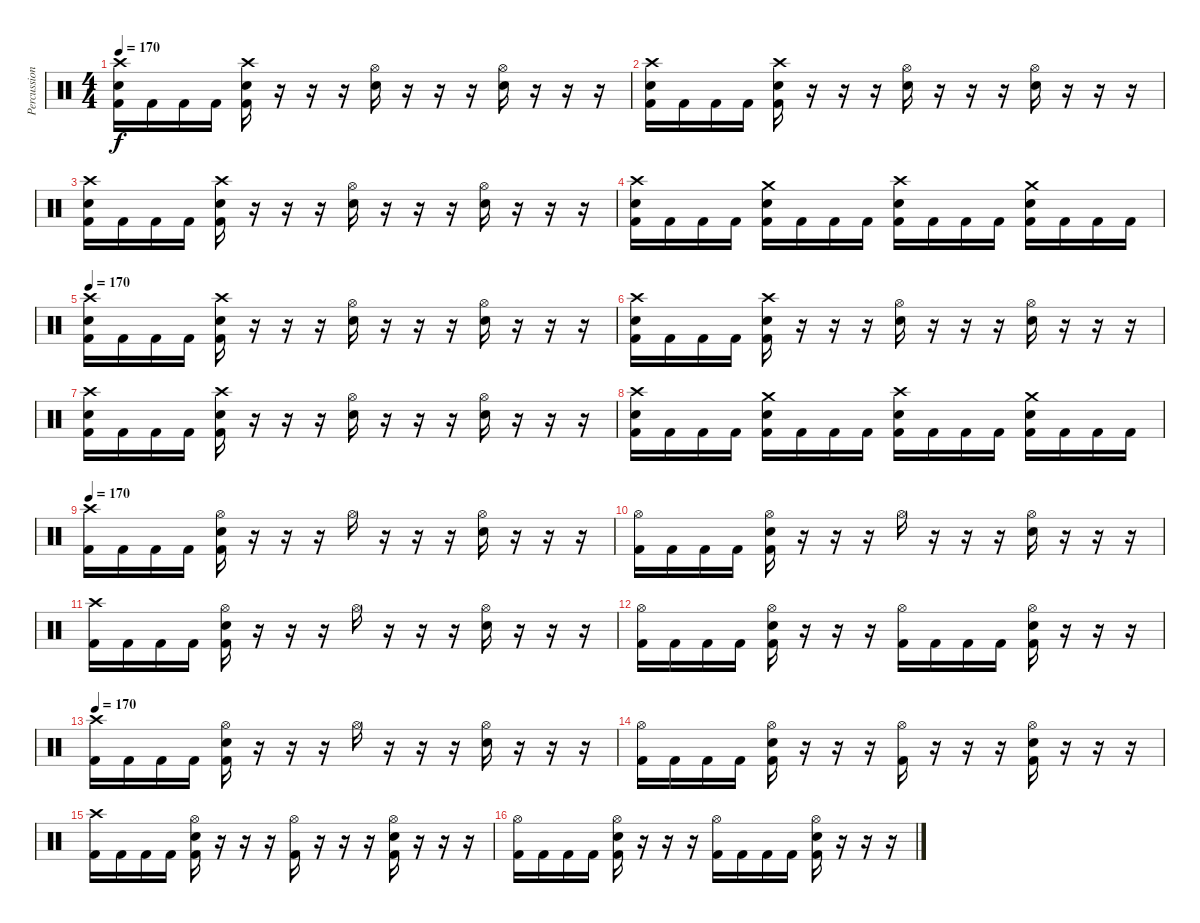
\track ("Percussion" "Percussion") {instrument percussion}
\staff {score}
\articulation defaults
\ts (4 4)
\tempo 170
\clef neutral
\ks c
("Crash high (hit)" "Snare (hit) 2" "Kick (hit) 2").16{dy f} "Kick (hit) 2".16 "Kick (hit) 2".16 "Kick (hit) 2".16 ("Crash high (hit)" "Snare (hit) 2" "Kick (hit) 2").16 r.16 r.16 r.16 ("Hi-Hat (open)" "Snare (hit) 2").16 r.16 r.16 r.16 ("Hi-Hat (open)" "Snare (hit) 2").16 r.16 r.16 r.16 |
("Crash high (hit)" "Snare (hit) 2" "Kick (hit) 2").16 "Kick (hit) 2".16 "Kick (hit) 2".16 "Kick (hit) 2".16 ("Crash high (hit)" "Snare (hit) 2" "Kick (hit) 2").16 r.16 r.16 r.16 ("Hi-Hat (open)" "Snare (hit) 2").16 r.16 r.16 r.16 ("Hi-Hat (open)" "Snare (hit) 2").16 r.16 r.16 r.16 |
("Crash high (hit)" "Snare (hit) 2" "Kick (hit) 2").16 "Kick (hit) 2".16 "Kick (hit) 2".16 "Kick (hit) 2".16 ("Crash high (hit)" "Snare (hit) 2" "Kick (hit) 2").16 r.16 r.16 r.16 ("Hi-Hat (open)" "Snare (hit) 2").16 r.16 r.16 r.16 ("Hi-Hat (open)" "Snare (hit) 2").16 r.16 r.16 r.16 |
("Crash high (hit)" "Snare (hit) 2" "Kick (hit) 2").16 "Kick (hit) 2".16 "Kick (hit) 2".16 "Kick (hit) 2".16 ("Crash medium (hit)" "Snare (hit) 2" "Kick (hit) 2").16 "Kick (hit) 2".16 "Kick (hit) 2".16 "Kick (hit) 2".16 ("Crash high (hit)" "Snare (hit) 2" "Kick (hit) 2").16 "Kick (hit) 2".16 "Kick (hit) 2".16 "Kick (hit) 2".16 ("Crash medium (hit)" "Snare (hit) 2" "Kick (hit) 2").16 "Kick (hit) 2".16 "Kick (hit) 2".16 "Kick (hit) 2".16 |
\tempo 170
("Crash high (hit)" "Snare (hit) 2" "Kick (hit) 2").16 "Kick (hit) 2".16 "Kick (hit) 2".16 "Kick (hit) 2".16 ("Crash high (hit)" "Snare (hit) 2" "Kick (hit) 2").16 r.16 r.16 r.16 ("Hi-Hat (open)" "Snare (hit) 2").16 r.16 r.16 r.16 ("Hi-Hat (open)" "Snare (hit) 2").16 r.16 r.16 r.16 |
("Crash high (hit)" "Snare (hit) 2" "Kick (hit) 2").16 "Kick (hit) 2".16 "Kick (hit) 2".16 "Kick (hit) 2".16 ("Crash high (hit)" "Snare (hit) 2" "Kick (hit) 2").16 r.16 r.16 r.16 ("Hi-Hat (open)" "Snare (hit) 2").16 r.16 r.16 r.16 ("Hi-Hat (open)" "Snare (hit) 2").16 r.16 r.16 r.16 |
("Crash high (hit)" "Snare (hit) 2" "Kick (hit) 2").16 "Kick (hit) 2".16 "Kick (hit) 2".16 "Kick (hit) 2".16 ("Crash high (hit)" "Snare (hit) 2" "Kick (hit) 2").16 r.16 r.16 r.16 ("Hi-Hat (open)" "Snare (hit) 2").16 r.16 r.16 r.16 ("Hi-Hat (open)" "Snare (hit) 2").16 r.16 r.16 r.16 |
("Crash high (hit)" "Snare (hit) 2" "Kick (hit) 2").16 "Kick (hit) 2".16 "Kick (hit) 2".16 "Kick (hit) 2".16 ("Crash medium (hit)" "Snare (hit) 2" "Kick (hit) 2").16 "Kick (hit) 2".16 "Kick (hit) 2".16 "Kick (hit) 2".16 ("Crash high (hit)" "Snare (hit) 2" "Kick (hit) 2").16 "Kick (hit) 2".16 "Kick (hit) 2".16 "Kick (hit) 2".16 ("Crash medium (hit)" "Snare (hit) 2" "Kick (hit) 2").16 "Kick (hit) 2".16 "Kick (hit) 2".16 "Kick (hit) 2".16 |
\tempo 170
("Crash high (hit)" "Kick (hit) 2").16 "Kick (hit) 2".16 "Kick (hit) 2".16 "Kick (hit) 2".16 ("Snare (hit) 2" "Hi-Hat (open)" "Kick (hit) 2").16 r.16 r.16 r.16 "Hi-Hat (open)".16 r.16 r.16 r.16 ("Snare (hit) 2" "Hi-Hat (open)").16 r.16 r.16 r.16 |
("Hi-Hat (open)" "Kick (hit) 2").16 "Kick (hit) 2".16 "Kick (hit) 2".16 "Kick (hit) 2".16 ("Snare (hit) 2" "Hi-Hat (open)" "Kick (hit) 2").16 r.16 r.16 r.16 "Hi-Hat (open)".16 r.16 r.16 r.16 ("Snare (hit) 2" "Hi-Hat (open)").16 r.16 r.16 r.16 |
("Crash high (hit)" "Kick (hit) 2").16 "Kick (hit) 2".16 "Kick (hit) 2".16 "Kick (hit) 2".16 ("Snare (hit) 2" "Hi-Hat (open)" "Kick (hit) 2").16 r.16 r.16 r.16 "Hi-Hat (open)".16 r.16 r.16 r.16 ("Snare (hit) 2" "Hi-Hat (open)").16 r.16 r.16 r.16 |
("Hi-Hat (open)" "Kick (hit) 2").16 "Kick (hit) 2".16 "Kick (hit) 2".16 "Kick (hit) 2".16 ("Snare (hit) 2" "Hi-Hat (open)" "Kick (hit) 2").16 r.16 r.16 r.16 ("Hi-Hat (open)" "Kick (hit) 2").16 "Kick (hit) 2".16 "Kick (hit) 2".16 "Kick (hit) 2".16 ("Snare (hit) 2" "Hi-Hat (open)" "Kick (hit) 2").16 r.16 r.16 r.16 |
\tempo 170
("Crash high (hit)" "Kick (hit) 2").16 "Kick (hit) 2".16 "Kick (hit) 2".16 "Kick (hit) 2".16 ("Snare (hit) 2" "Hi-Hat (open)" "Kick (hit) 2").16 r.16 r.16 r.16 "Hi-Hat (open)".16 r.16 r.16 r.16 ("Snare (hit) 2" "Hi-Hat (open)").16 r.16 r.16 r.16 |
("Hi-Hat (open)" "Kick (hit) 2").16 "Kick (hit) 2".16 "Kick (hit) 2".16 "Kick (hit) 2".16 ("Snare (hit) 2" "Hi-Hat (open)" "Kick (hit) 2").16 r.16 r.16 r.16 ("Hi-Hat (open)" "Kick (hit) 2").16 r.16 r.16 r.16 ("Snare (hit) 2" "Hi-Hat (open)" "Kick (hit) 2").16 r.16 r.16 r.16 |
("Crash high (hit)" "Kick (hit) 2").16 "Kick (hit) 2".16 "Kick (hit) 2".16 "Kick (hit) 2".16 ("Snare (hit) 2" "Hi-Hat (open)" "Kick (hit) 2").16 r.16 r.16 r.16 ("Hi-Hat (open)" "Kick (hit) 2").16 r.16 r.16 r.16 ("Snare (hit) 2" "Hi-Hat (open)" "Kick (hit) 2").16 r.16 r.16 r.16 |
("Hi-Hat (open)" "Kick (hit) 2").16 "Kick (hit) 2".16 "Kick (hit) 2".16 "Kick (hit) 2".16 ("Snare (hit) 2" "Hi-Hat (open)" "Kick (hit) 2").16 r.16 r.16 r.16 ("Hi-Hat (open)" "Kick (hit) 2").16 "Kick (hit) 2".16 "Kick (hit) 2".16 "Kick (hit) 2".16 ("Snare (hit) 2" "Hi-Hat (open)" "Kick (hit) 2").16 r.16 r.16 r.16
